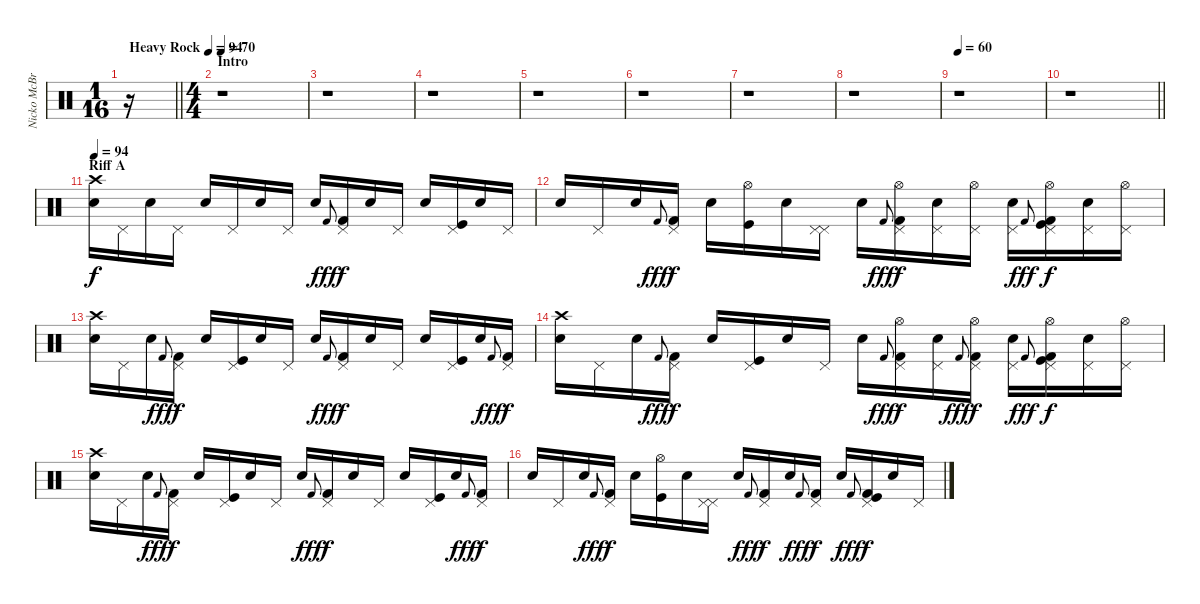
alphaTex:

\track ("Nicko McBrain" "Nicko McBr") {instrument percussion}
\staff {score}
\articulation defaults
\ts (1 16)
\tempo (94 "Heavy Rock")
\clef neutral
\barLineRight lightlight
\ks c
r.16{dy f} |
\ts (4 4)
\section ("" "Intro")
\tempo 70
r.1 |
r.1 |
r.1 |
r.1 |
r.1 |
r.1 |
r.1 |
\tempo 60
r.1 |
\barLineRight lightlight
r.1 |
\section ("" "Riff A")
\tempo 94
("Snare (hit) 2" "Crash high (hit)").16 "Pedal Hi-Hat (hit)".16 "Snare (hit) 2".16 "Pedal Hi-Hat (hit)".16 "Snare (hit) 2".16 "Pedal Hi-Hat (hit)".16 "Snare (hit) 2".16 "Pedal Hi-Hat (hit)".16 "Snare (hit) 2".16 "Kick (hit) 2".8{gr onbeat dy fff} ("Pedal Hi-Hat (hit)" "Kick (hit) 2").16{dy f} "Snare (hit) 2".16 "Pedal Hi-Hat (hit)".16 "Snare (hit) 2".16 ("Kick (hit)" "Pedal Hi-Hat (hit)").16 "Snare (hit) 2".16 "Pedal Hi-Hat (hit)".16 |
"Snare (hit) 2".16 "Pedal Hi-Hat (hit)".16 "Snare (hit) 2".16 "Kick (hit) 2".8{gr onbeat dy fff} ("Pedal Hi-Hat (hit)" "Kick (hit) 2").16{dy f} "Snare (hit) 2".16 ("Kick (hit)" "Hi-Hat (open)").16 "Snare (hit) 2".16 ("Pedal Hi-Hat (hit)" "Pedal Hi-Hat (hit)").16 "Snare (hit) 2".16 "Kick (hit) 2".8{gr onbeat dy fff} ("Pedal Hi-Hat (hit)" "Hi-Hat (open)" "Kick (hit) 2").16{dy f} ("Snare (hit) 2" "Pedal Hi-Hat (hit)").16 ("Pedal Hi-Hat (hit)" "Hi-Hat (open)").16 ("Snare (hit) 2" "Pedal Hi-Hat (hit)").16 "Kick (hit) 2".8{gr onbeat dy fff} ("Kick (hit)" "Pedal Hi-Hat (hit)" "Hi-Hat (open)" "Kick (hit) 2").16{dy f} ("Snare (hit) 2" "Pedal Hi-Hat (hit)").16 ("Pedal Hi-Hat (hit)" "Hi-Hat (open)").16 |
("Snare (hit) 2" "Crash high (hit)").16 "Pedal Hi-Hat (hit)".16 "Snare (hit) 2".16 "Kick (hit) 2".8{gr onbeat dy fff} ("Pedal Hi-Hat (hit)" "Kick (hit) 2").16{dy f} "Snare (hit) 2".16 ("Kick (hit)" "Pedal Hi-Hat (hit)").16 "Snare (hit) 2".16 "Pedal Hi-Hat (hit)".16 "Snare (hit) 2".16 "Kick (hit) 2".8{gr onbeat dy fff} ("Pedal Hi-Hat (hit)" "Kick (hit) 2").16{dy f} "Snare (hit) 2".16 "Pedal Hi-Hat (hit)".16 "Snare (hit) 2".16 ("Kick (hit)" "Pedal Hi-Hat (hit)").16 "Snare (hit) 2".16 "Kick (hit) 2".8{gr onbeat dy fff} ("Pedal Hi-Hat (hit)" "Kick (hit) 2").16{dy f} |
("Snare (hit) 2" "Crash high (hit)").16 "Pedal Hi-Hat (hit)".16 "Snare (hit) 2".16 "Kick (hit) 2".8{gr onbeat dy fff} ("Pedal Hi-Hat (hit)" "Kick (hit) 2").16{dy f} "Snare (hit) 2".16 ("Kick (hit)" "Pedal Hi-Hat (hit)").16 "Snare (hit) 2".16 "Pedal Hi-Hat (hit)".16 "Snare (hit) 2".16 "Kick (hit) 2".8{gr onbeat dy fff} ("Pedal Hi-Hat (hit)" "Hi-Hat (open)" "Kick (hit) 2").16{dy f} ("Snare (hit) 2" "Pedal Hi-Hat (hit)").16 "Kick (hit) 2".8{gr onbeat dy fff} ("Pedal Hi-Hat (hit)" "Hi-Hat (open)" "Kick (hit) 2").16{dy f} ("Snare (hit) 2" "Pedal Hi-Hat (hit)").16 "Kick (hit) 2".8{gr onbeat dy fff} ("Kick (hit)" "Pedal Hi-Hat (hit)" "Hi-Hat (open)" "Kick (hit) 2").16{dy f} ("Snare (hit) 2" "Pedal Hi-Hat (hit)").16 ("Pedal Hi-Hat (hit)" "Hi-Hat (open)").16 |
("Snare (hit) 2" "Crash high (hit)").16 "Pedal Hi-Hat (hit)".16 "Snare (hit) 2".16 "Kick (hit) 2".8{gr onbeat dy fff} ("Pedal Hi-Hat (hit)" "Kick (hit) 2").16{dy f} "Snare (hit) 2".16 ("Kick (hit)" "Pedal Hi-Hat (hit)").16 "Snare (hit) 2".16 "Pedal Hi-Hat (hit)".16 "Snare (hit) 2".16 "Kick (hit) 2".8{gr onbeat dy fff} ("Pedal Hi-Hat (hit)" "Kick (hit) 2").16{dy f} "Snare (hit) 2".16 "Pedal Hi-Hat (hit)".16 "Snare (hit) 2".16 ("Kick (hit)" "Pedal Hi-Hat (hit)").16 "Snare (hit) 2".16 "Kick (hit) 2".8{gr onbeat dy fff} ("Pedal Hi-Hat (hit)" "Kick (hit) 2").16{dy f} |
"Snare (hit) 2".16 "Pedal Hi-Hat (hit)".16 "Snare (hit) 2".16 "Kick (hit) 2".8{gr onbeat dy fff} ("Pedal Hi-Hat (hit)" "Kick (hit) 2").16{dy f} "Snare (hit) 2".16 ("Kick (hit)" "Hi-Hat (open)").16 "Snare (hit) 2".16 ("Pedal Hi-Hat (hit)" "Pedal Hi-Hat (hit)").16 "Snare (hit) 2".16 "Kick (hit) 2".8{gr onbeat dy fff} ("Pedal Hi-Hat (hit)" "Kick (hit) 2").16{dy f} "Snare (hit) 2".16 "Kick (hit) 2".8{gr onbeat dy fff} ("Pedal Hi-Hat (hit)" "Kick (hit) 2").16{dy f} "Snare (hit) 2".16 "Kick (hit) 2".8{gr onbeat dy fff} ("Kick (hit)" "Pedal Hi-Hat (hit)" "Kick (hit) 2").16{dy f} "Snare (hit) 2".16 "Pedal Hi-Hat (hit)".16
